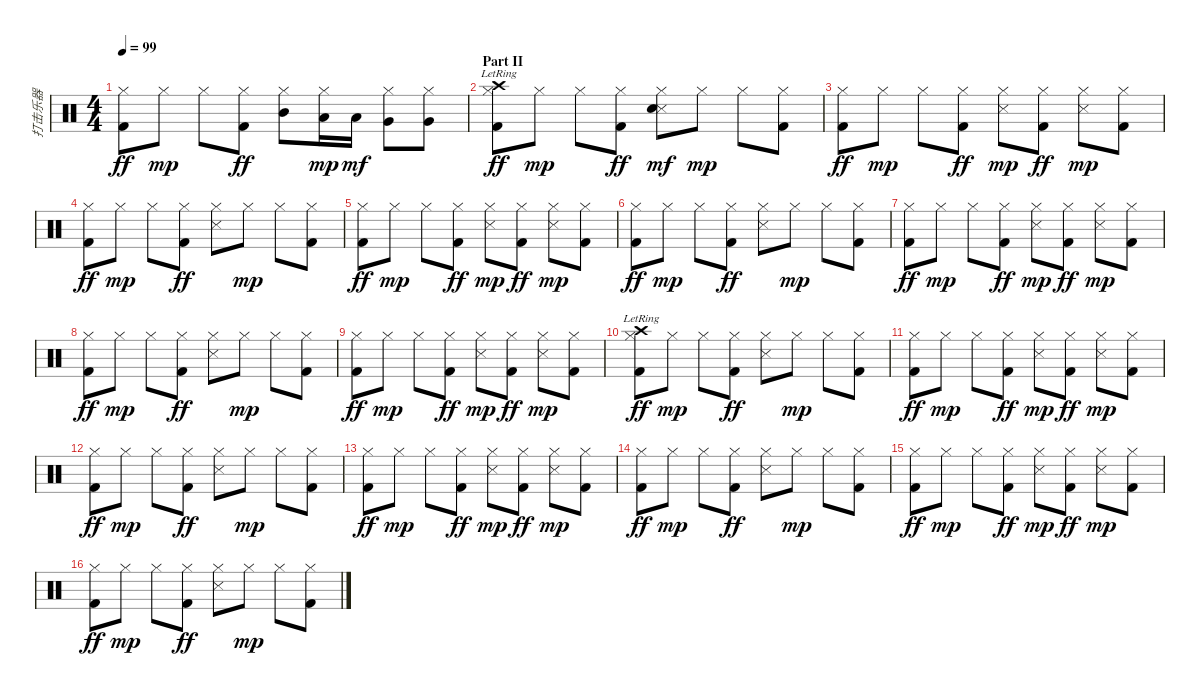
\track ("打击乐器" "打击乐器") {instrument percussion}
\staff {score}
\articulation defaults
\ts (4 4)
\tempo 99
\clef neutral
\ks c
("Hi-Hat (closed)" "Kick (hit) 2").8{dy ff} "Hi-Hat (closed)".8{dy mp} "Hi-Hat (closed)".8 ("Hi-Hat (closed)" "Kick (hit) 2").8{dy ff} ("Hi-Hat (closed)" "Mid Tom (hit)").8 ("Hi-Hat (closed)" "Low Tom (hit)").16{dy mp} "Low Tom (hit)".16{dy mf} ("Hi-Hat (closed)" "Very Low Tom (hit)").8 ("Hi-Hat (closed)" "Very Low Tom (hit)").8 |
\section ("" "Part II")
("Hi-Hat (closed)" "Crash high (hit)"{lr} "Kick (hit) 2").8{dy ff} "Hi-Hat (closed)".8{dy mp} "Hi-Hat (closed)".8 ("Hi-Hat (closed)" "Kick (hit) 2").8{dy ff} ("Hi-Hat (closed)" "Snare (side stick) 3" "Electric Snare (hit)").8{dy mf} "Hi-Hat (closed)".8{dy mp} "Hi-Hat (closed)".8 ("Hi-Hat (closed)" "Kick (hit) 2").8 |
("Hi-Hat (closed)" "Kick (hit) 2").8{dy ff} "Hi-Hat (closed)".8{dy mp} "Hi-Hat (closed)".8 ("Hi-Hat (closed)" "Kick (hit) 2").8{dy ff} ("Hi-Hat (closed)" "Snare (side stick) 3").8{dy mp} ("Hi-Hat (closed)" "Kick (hit) 2").8{dy ff} ("Hi-Hat (closed)" "Snare (side stick) 3").8{dy mp} ("Hi-Hat (closed)" "Kick (hit) 2").8 |
("Hi-Hat (closed)" "Kick (hit) 2").8{dy ff} "Hi-Hat (closed)".8{dy mp} "Hi-Hat (closed)".8 ("Hi-Hat (closed)" "Kick (hit) 2").8{dy ff} ("Hi-Hat (closed)" "Snare (side stick) 3").8 "Hi-Hat (closed)".8{dy mp} "Hi-Hat (closed)".8 ("Hi-Hat (closed)" "Kick (hit) 2").8 |
("Hi-Hat (closed)" "Kick (hit) 2").8{dy ff} "Hi-Hat (closed)".8{dy mp} "Hi-Hat (closed)".8 ("Hi-Hat (closed)" "Kick (hit) 2").8{dy ff} ("Hi-Hat (closed)" "Snare (side stick) 3").8{dy mp} ("Hi-Hat (closed)" "Kick (hit) 2").8{dy ff} ("Hi-Hat (closed)" "Snare (side stick) 3").8{dy mp} ("Hi-Hat (closed)" "Kick (hit) 2").8 |
("Hi-Hat (closed)" "Kick (hit) 2").8{dy ff} "Hi-Hat (closed)".8{dy mp} "Hi-Hat (closed)".8 ("Hi-Hat (closed)" "Kick (hit) 2").8{dy ff} ("Hi-Hat (closed)" "Snare (side stick) 3").8 "Hi-Hat (closed)".8{dy mp} "Hi-Hat (closed)".8 ("Hi-Hat (closed)" "Kick (hit) 2").8 |
("Hi-Hat (closed)" "Kick (hit) 2").8{dy ff} "Hi-Hat (closed)".8{dy mp} "Hi-Hat (closed)".8 ("Hi-Hat (closed)" "Kick (hit) 2").8{dy ff} ("Hi-Hat (closed)" "Snare (side stick) 3").8{dy mp} ("Hi-Hat (closed)" "Kick (hit) 2").8{dy ff} ("Hi-Hat (closed)" "Snare (side stick) 3").8{dy mp} ("Hi-Hat (closed)" "Kick (hit) 2").8 |
("Hi-Hat (closed)" "Kick (hit) 2").8{dy ff} "Hi-Hat (closed)".8{dy mp} "Hi-Hat (closed)".8 ("Hi-Hat (closed)" "Kick (hit) 2").8{dy ff} ("Hi-Hat (closed)" "Snare (side stick) 3").8 "Hi-Hat (closed)".8{dy mp} "Hi-Hat (closed)".8 ("Hi-Hat (closed)" "Kick (hit) 2").8 |
("Hi-Hat (closed)" "Kick (hit) 2").8{dy ff} "Hi-Hat (closed)".8{dy mp} "Hi-Hat (closed)".8 ("Hi-Hat (closed)" "Kick (hit) 2").8{dy ff} ("Hi-Hat (closed)" "Snare (side stick) 3").8{dy mp} ("Hi-Hat (closed)" "Kick (hit) 2").8{dy ff} ("Hi-Hat (closed)" "Snare (side stick) 3").8{dy mp} ("Hi-Hat (closed)" "Kick (hit) 2").8 |
("Hi-Hat (closed)" "Crash high (hit)"{lr} "Kick (hit) 2").8{dy ff} "Hi-Hat (closed)".8{dy mp} "Hi-Hat (closed)".8 ("Hi-Hat (closed)" "Kick (hit) 2").8{dy ff} ("Hi-Hat (closed)" "Snare (side stick) 3").8 "Hi-Hat (closed)".8{dy mp} "Hi-Hat (closed)".8 ("Hi-Hat (closed)" "Kick (hit) 2").8 |
("Hi-Hat (closed)" "Kick (hit) 2").8{dy ff} "Hi-Hat (closed)".8{dy mp} "Hi-Hat (closed)".8 ("Hi-Hat (closed)" "Kick (hit) 2").8{dy ff} ("Hi-Hat (closed)" "Snare (side stick) 3").8{dy mp} ("Hi-Hat (closed)" "Kick (hit) 2").8{dy ff} ("Hi-Hat (closed)" "Snare (side stick) 3").8{dy mp} ("Hi-Hat (closed)" "Kick (hit) 2").8 |
("Hi-Hat (closed)" "Kick (hit) 2").8{dy ff} "Hi-Hat (closed)".8{dy mp} "Hi-Hat (closed)".8 ("Hi-Hat (closed)" "Kick (hit) 2").8{dy ff} ("Hi-Hat (closed)" "Snare (side stick) 3").8 "Hi-Hat (closed)".8{dy mp} "Hi-Hat (closed)".8 ("Hi-Hat (closed)" "Kick (hit) 2").8 |
("Hi-Hat (closed)" "Kick (hit) 2").8{dy ff} "Hi-Hat (closed)".8{dy mp} "Hi-Hat (closed)".8 ("Hi-Hat (closed)" "Kick (hit) 2").8{dy ff} ("Hi-Hat (closed)" "Snare (side stick) 3").8{dy mp} ("Hi-Hat (closed)" "Kick (hit) 2").8{dy ff} ("Hi-Hat (closed)" "Snare (side stick) 3").8{dy mp} ("Hi-Hat (closed)" "Kick (hit) 2").8 |
("Hi-Hat (closed)" "Kick (hit) 2").8{dy ff} "Hi-Hat (closed)".8{dy mp} "Hi-Hat (closed)".8 ("Hi-Hat (closed)" "Kick (hit) 2").8{dy ff} ("Hi-Hat (closed)" "Snare (side stick) 3").8 "Hi-Hat (closed)".8{dy mp} "Hi-Hat (closed)".8 ("Hi-Hat (closed)" "Kick (hit) 2").8 |
("Hi-Hat (closed)" "Kick (hit) 2").8{dy ff} "Hi-Hat (closed)".8{dy mp} "Hi-Hat (closed)".8 ("Hi-Hat (closed)" "Kick (hit) 2").8{dy ff} ("Hi-Hat (closed)" "Snare (side stick) 3").8{dy mp} ("Hi-Hat (closed)" "Kick (hit) 2").8{dy ff} ("Hi-Hat (closed)" "Snare (side stick) 3").8{dy mp} ("Hi-Hat (closed)" "Kick (hit) 2").8 |
("Hi-Hat (closed)" "Kick (hit) 2").8{dy ff} "Hi-Hat (closed)".8{dy mp} "Hi-Hat (closed)".8 ("Hi-Hat (closed)" "Kick (hit) 2").8{dy ff} ("Hi-Hat (closed)" "Snare (side stick) 3").8 "Hi-Hat (closed)".8{dy mp} "Hi-Hat (closed)".8 ("Hi-Hat (closed)" "Kick (hit) 2").8
